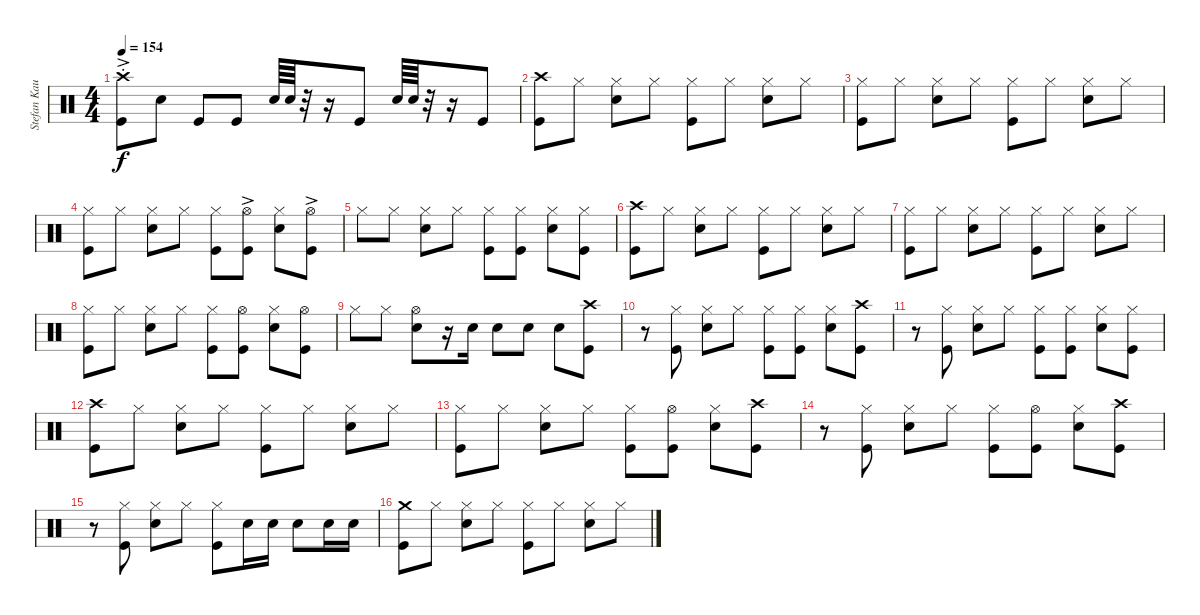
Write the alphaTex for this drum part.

\track ("Stefan Kaufmann" "Stefan Kau") {instrument percussion}
\staff {score}
\articulation defaults
\ts (4 4)
\tempo 154
\clef neutral
\ks c
("Crash high (hit)"{ac st} "Kick (hit)").8{dy f} "Snare (hit) 2".8 "Kick (hit)".8 "Kick (hit)".8 "Snare (hit) 2".64 "Snare (hit) 2".64 r.32 r.16 "Kick (hit)".8 "Snare (hit) 2".64 "Snare (hit) 2".64 r.32 r.16 "Kick (hit)".8 |
("Crash high (hit)" "Kick (hit)").8 "Hi-Hat (closed)".8 ("Hi-Hat (closed)" "Snare (hit) 2").8 "Hi-Hat (closed)".8 ("Hi-Hat (closed)" "Kick (hit)").8 "Hi-Hat (closed)".8 ("Hi-Hat (closed)" "Snare (hit) 2").8 "Hi-Hat (closed)".8 |
("Hi-Hat (closed)" "Kick (hit)").8 "Hi-Hat (closed)".8 ("Hi-Hat (closed)" "Snare (hit) 2").8 "Hi-Hat (closed)".8 ("Hi-Hat (closed)" "Kick (hit)").8 "Hi-Hat (closed)".8 ("Hi-Hat (closed)" "Snare (hit) 2").8 "Hi-Hat (closed)".8 |
("Hi-Hat (closed)" "Kick (hit)").8 "Hi-Hat (closed)".8 ("Hi-Hat (closed)" "Snare (hit) 2").8 "Hi-Hat (closed)".8 ("Hi-Hat (closed)" "Kick (hit)").8 ("Hi-Hat (open)"{ac} "Kick (hit)").8 ("Hi-Hat (closed)" "Snare (hit) 2").8 ("Hi-Hat (open)"{ac} "Kick (hit)").8 |
"Hi-Hat (closed)".8 "Hi-Hat (closed)".8 ("Hi-Hat (closed)" "Snare (hit) 2").8 "Hi-Hat (closed)".8 ("Hi-Hat (closed)" "Kick (hit)").8 ("Hi-Hat (closed)" "Kick (hit)").8 ("Hi-Hat (closed)" "Snare (hit) 2").8 ("Hi-Hat (closed)" "Kick (hit)").8 |
("Crash high (hit)" "Kick (hit)").8 "Hi-Hat (closed)".8 ("Hi-Hat (closed)" "Snare (hit) 2").8 "Hi-Hat (closed)".8 ("Hi-Hat (closed)" "Kick (hit)").8 "Hi-Hat (closed)".8 ("Hi-Hat (closed)" "Snare (hit) 2").8 "Hi-Hat (closed)".8 |
("Hi-Hat (closed)" "Kick (hit)").8 "Hi-Hat (closed)".8 ("Hi-Hat (closed)" "Snare (hit) 2").8 "Hi-Hat (closed)".8 ("Hi-Hat (closed)" "Kick (hit)").8 "Hi-Hat (closed)".8 ("Hi-Hat (closed)" "Snare (hit) 2").8 "Hi-Hat (closed)".8 |
("Hi-Hat (closed)" "Kick (hit)").8 "Hi-Hat (closed)".8 ("Hi-Hat (closed)" "Snare (hit) 2").8 "Hi-Hat (closed)".8 ("Hi-Hat (closed)" "Kick (hit)").8 ("Hi-Hat (open)" "Kick (hit)").8 ("Hi-Hat (closed)" "Snare (hit) 2").8 ("Hi-Hat (open)" "Kick (hit)").8 |
"Hi-Hat (closed)".8 "Hi-Hat (closed)".8 ("Hi-Hat (open)" "Snare (hit) 2").8 r.16 "Snare (hit) 2".16 "Snare (hit) 2".8 "Snare (hit) 2".8 "Snare (hit) 2".8 ("Crash high (hit)" "Kick (hit)").8 |
r.8 ("Hi-Hat (closed)" "Kick (hit)").8 ("Hi-Hat (closed)" "Snare (hit) 2").8 "Hi-Hat (closed)".8 ("Hi-Hat (closed)" "Kick (hit)").8 ("Hi-Hat (closed)" "Kick (hit)").8 ("Hi-Hat (closed)" "Snare (hit) 2").8 ("Crash high (hit)" "Kick (hit)").8 |
r.8 ("Hi-Hat (closed)" "Kick (hit)").8 ("Hi-Hat (closed)" "Snare (hit) 2").8 "Hi-Hat (closed)".8 ("Hi-Hat (closed)" "Kick (hit)").8 ("Hi-Hat (closed)" "Kick (hit)").8 ("Hi-Hat (closed)" "Snare (hit) 2").8 ("Hi-Hat (closed)" "Kick (hit)").8 |
("Crash high (hit)" "Kick (hit)").8 "Hi-Hat (closed)".8 ("Hi-Hat (closed)" "Snare (hit) 2").8 "Hi-Hat (closed)".8 ("Hi-Hat (closed)" "Kick (hit)").8 "Hi-Hat (closed)".8 ("Hi-Hat (closed)" "Snare (hit) 2").8 "Hi-Hat (closed)".8 |
("Hi-Hat (closed)" "Kick (hit)").8 "Hi-Hat (closed)".8 ("Hi-Hat (closed)" "Snare (hit) 2").8 "Hi-Hat (closed)".8 ("Hi-Hat (closed)" "Kick (hit)").8 ("Hi-Hat (open)" "Kick (hit)").8 ("Hi-Hat (closed)" "Snare (hit) 2").8 ("Crash high (hit)" "Kick (hit)").8 |
r.8 ("Hi-Hat (closed)" "Kick (hit)").8 ("Hi-Hat (closed)" "Snare (hit) 2").8 "Hi-Hat (closed)".8 ("Hi-Hat (closed)" "Kick (hit)").8 ("Hi-Hat (open)" "Kick (hit)").8 ("Hi-Hat (closed)" "Snare (hit) 2").8 ("Crash high (hit)" "Kick (hit)").8 |
r.8 ("Hi-Hat (closed)" "Kick (hit)").8 ("Hi-Hat (closed)" "Snare (hit) 2").8 "Hi-Hat (closed)".8 ("Hi-Hat (closed)" "Kick (hit)").8 "Snare (hit) 2".16 "Snare (hit) 2".16 "Snare (hit) 2".8 "Snare (hit) 2".16 "Snare (hit) 2".16 |
("Kick (hit)" "Crash medium (hit)").8 "Hi-Hat (closed)".8 ("Hi-Hat (closed)" "Snare (hit) 2").8 "Hi-Hat (closed)".8 ("Hi-Hat (closed)" "Kick (hit)").8 "Hi-Hat (closed)".8 ("Hi-Hat (closed)" "Snare (hit) 2").8 "Hi-Hat (closed)".8
